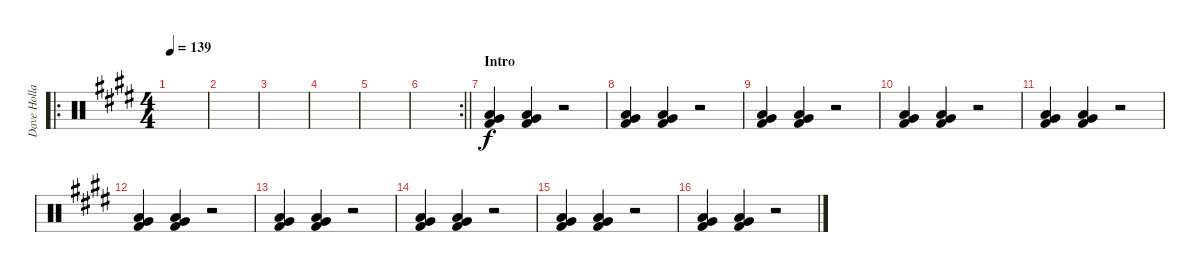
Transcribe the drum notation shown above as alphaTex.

\track ("Dave Holland" "Dave Holla") {instrument percussion}
\staff {score}
\articulation defaults
\ro
\ts (4 4)
\tempo 139
\clef neutral
\ks c#minor
|
|
|
|
|
\rc 2
\barLineRight lightlight
|
\section ("" "Intro")
("Low Floor Tom (hit)" "Very Low Tom (hit)" "Kick (hit) 2").4 ("Low Floor Tom (hit)" "Very Low Tom (hit)" "Kick (hit) 2").4 r.2 |
("Low Floor Tom (hit)" "Very Low Tom (hit)" "Kick (hit) 2").4 ("Low Floor Tom (hit)" "Very Low Tom (hit)" "Kick (hit) 2").4 r.2 |
("Low Floor Tom (hit)" "Very Low Tom (hit)" "Kick (hit) 2").4 ("Low Floor Tom (hit)" "Very Low Tom (hit)" "Kick (hit) 2").4 r.2 |
("Low Floor Tom (hit)" "Very Low Tom (hit)" "Kick (hit) 2").4 ("Low Floor Tom (hit)" "Very Low Tom (hit)" "Kick (hit) 2").4 r.2 |
("Low Floor Tom (hit)" "Very Low Tom (hit)" "Kick (hit) 2").4 ("Low Floor Tom (hit)" "Very Low Tom (hit)" "Kick (hit) 2").4 r.2 |
("Low Floor Tom (hit)" "Very Low Tom (hit)" "Kick (hit) 2").4 ("Low Floor Tom (hit)" "Very Low Tom (hit)" "Kick (hit) 2").4 r.2 |
("Low Floor Tom (hit)" "Very Low Tom (hit)" "Kick (hit) 2").4 ("Low Floor Tom (hit)" "Very Low Tom (hit)" "Kick (hit) 2").4 r.2 |
("Low Floor Tom (hit)" "Very Low Tom (hit)" "Kick (hit) 2").4 ("Low Floor Tom (hit)" "Very Low Tom (hit)" "Kick (hit) 2").4 r.2 |
("Low Floor Tom (hit)" "Very Low Tom (hit)" "Kick (hit) 2").4 ("Low Floor Tom (hit)" "Very Low Tom (hit)" "Kick (hit) 2").4 r.2 |
("Low Floor Tom (hit)" "Very Low Tom (hit)" "Kick (hit) 2").4 ("Low Floor Tom (hit)" "Very Low Tom (hit)" "Kick (hit) 2").4 r.2
